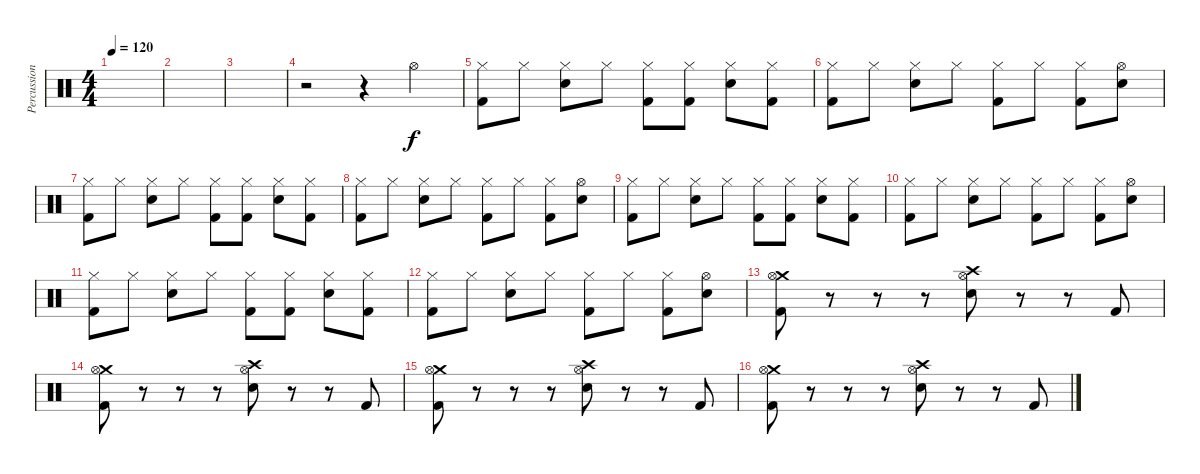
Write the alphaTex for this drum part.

\track ("Percussion" "Percussion") {instrument percussion}
\staff {score}
\articulation defaults
\ts (4 4)
\tempo 120
\clef neutral
\ks c
|
|
|
r.2 r.4 "Hi-Hat (open)".4 |
("Hi-Hat (closed)" "Kick (hit) 2").8 "Hi-Hat (closed)".8 ("Hi-Hat (closed)" "Snare (hit) 2").8 "Hi-Hat (closed)".8 ("Hi-Hat (closed)" "Kick (hit) 2").8 ("Hi-Hat (closed)" "Kick (hit) 2").8 ("Hi-Hat (closed)" "Snare (hit) 2").8 ("Hi-Hat (closed)" "Kick (hit) 2").8 |
("Hi-Hat (closed)" "Kick (hit) 2").8 "Hi-Hat (closed)".8 ("Hi-Hat (closed)" "Snare (hit) 2").8 "Hi-Hat (closed)".8 ("Hi-Hat (closed)" "Kick (hit) 2").8 "Hi-Hat (closed)".8 ("Hi-Hat (closed)" "Kick (hit) 2").8 ("Hi-Hat (open)" "Snare (hit) 2").8 |
("Hi-Hat (closed)" "Kick (hit) 2").8 "Hi-Hat (closed)".8 ("Hi-Hat (closed)" "Snare (hit) 2").8 "Hi-Hat (closed)".8 ("Hi-Hat (closed)" "Kick (hit) 2").8 ("Hi-Hat (closed)" "Kick (hit) 2").8 ("Hi-Hat (closed)" "Snare (hit) 2").8 ("Hi-Hat (closed)" "Kick (hit) 2").8 |
("Hi-Hat (closed)" "Kick (hit) 2").8 "Hi-Hat (closed)".8 ("Hi-Hat (closed)" "Snare (hit) 2").8 "Hi-Hat (closed)".8 ("Hi-Hat (closed)" "Kick (hit) 2").8 "Hi-Hat (closed)".8 ("Hi-Hat (closed)" "Kick (hit) 2").8 ("Hi-Hat (open)" "Snare (hit) 2").8 |
("Hi-Hat (closed)" "Kick (hit) 2").8 "Hi-Hat (closed)".8 ("Hi-Hat (closed)" "Snare (hit) 2").8 "Hi-Hat (closed)".8 ("Hi-Hat (closed)" "Kick (hit) 2").8 ("Hi-Hat (closed)" "Kick (hit) 2").8 ("Hi-Hat (closed)" "Snare (hit) 2").8 ("Hi-Hat (closed)" "Kick (hit) 2").8 |
("Hi-Hat (closed)" "Kick (hit) 2").8 "Hi-Hat (closed)".8 ("Hi-Hat (closed)" "Snare (hit) 2").8 "Hi-Hat (closed)".8 ("Hi-Hat (closed)" "Kick (hit) 2").8 "Hi-Hat (closed)".8 ("Hi-Hat (closed)" "Kick (hit) 2").8 ("Hi-Hat (open)" "Snare (hit) 2").8 |
("Hi-Hat (closed)" "Kick (hit) 2").8 "Hi-Hat (closed)".8 ("Hi-Hat (closed)" "Snare (hit) 2").8 "Hi-Hat (closed)".8 ("Hi-Hat (closed)" "Kick (hit) 2").8 ("Hi-Hat (closed)" "Kick (hit) 2").8 ("Hi-Hat (closed)" "Snare (hit) 2").8 ("Hi-Hat (closed)" "Kick (hit) 2").8 |
("Hi-Hat (closed)" "Kick (hit) 2").8 "Hi-Hat (closed)".8 ("Hi-Hat (closed)" "Snare (hit) 2").8 "Hi-Hat (closed)".8 ("Hi-Hat (closed)" "Kick (hit) 2").8 "Hi-Hat (closed)".8 ("Hi-Hat (closed)" "Kick (hit) 2").8 ("Hi-Hat (open)" "Snare (hit) 2").8 |
("Crash medium (hit)" "Hi-Hat (open)" "Kick (hit) 2").8 r.8 r.8 r.8 ("Crash high (hit)" "Hi-Hat (open)" "Snare (hit) 2").8 r.8 r.8 "Kick (hit) 2".8 |
("Crash medium (hit)" "Hi-Hat (open)" "Kick (hit) 2").8 r.8 r.8 r.8 ("Crash high (hit)" "Hi-Hat (open)" "Snare (hit) 2").8 r.8 r.8 "Kick (hit) 2".8 |
("Crash medium (hit)" "Hi-Hat (open)" "Kick (hit) 2").8 r.8 r.8 r.8 ("Crash high (hit)" "Hi-Hat (open)" "Snare (hit) 2").8 r.8 r.8 "Kick (hit) 2".8 |
("Crash medium (hit)" "Hi-Hat (open)" "Kick (hit) 2").8 r.8 r.8 r.8 ("Crash high (hit)" "Hi-Hat (open)" "Snare (hit) 2").8 r.8 r.8 "Kick (hit) 2".8
